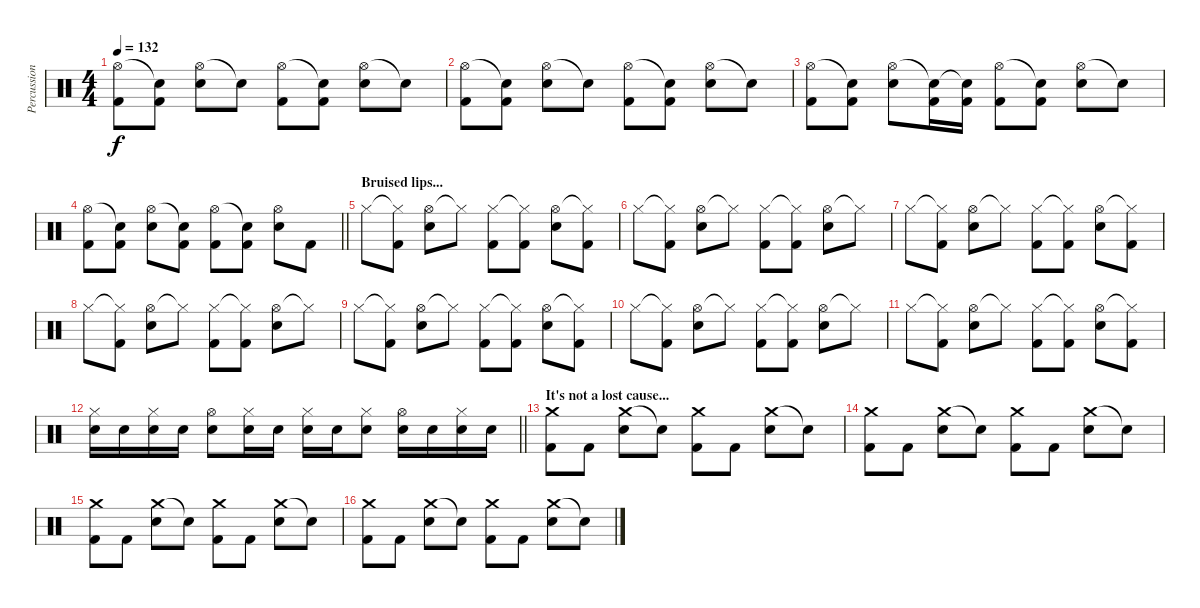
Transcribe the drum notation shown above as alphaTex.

\track ("Percussioni" "Percussion") {instrument percussion}
\staff {score}
\articulation defaults
\ts (4 4)
\tempo 132
\clef neutral
\ks c
("Hi-Hat (open)" "Kick (hit) 2").8{dy f} ("Snare (hit)"{t} "Kick (hit) 2").8 ("Hi-Hat (open)" "Snare (hit) 2").8 "Snare (hit)"{t}.8 ("Hi-Hat (open)" "Kick (hit) 2").8 ("Snare (hit)"{t} "Kick (hit) 2").8 ("Hi-Hat (open)" "Snare (hit) 2").8 "Snare (hit)"{t}.8 |
("Hi-Hat (open)" "Kick (hit) 2").8 ("Snare (hit)"{t} "Kick (hit) 2").8 ("Hi-Hat (open)" "Snare (hit) 2").8 "Snare (hit)"{t}.8 ("Hi-Hat (open)" "Kick (hit) 2").8 ("Snare (hit)"{t} "Kick (hit) 2").8 ("Hi-Hat (open)" "Snare (hit) 2").8 "Snare (hit)"{t}.8 |
("Hi-Hat (open)" "Kick (hit) 2").8{volume 16} ("Snare (hit)"{t} "Kick (hit) 2").8 ("Hi-Hat (open)" "Snare (hit) 2").8 ("Snare (hit)"{t} "Kick (hit) 2").16 ("Snare (hit)"{t} "Kick (hit) 2").16 ("Hi-Hat (open)" "Kick (hit) 2").8 ("Snare (hit)"{t} "Kick (hit) 2").8 ("Hi-Hat (open)" "Snare (hit) 2").8 "Snare (hit)"{t}.8 |
\barLineRight lightlight
("Hi-Hat (open)" "Kick (hit) 2").8 ("Snare (hit)"{t} "Kick (hit) 2").8 ("Hi-Hat (open)" "Snare (hit) 2").8 ("Snare (hit)"{t} "Kick (hit) 2").8 ("Hi-Hat (open)" "Kick (hit) 2").8 ("Snare (hit)"{t} "Kick (hit) 2").8 ("Hi-Hat (open)" "Snare (hit) 2").8 "Kick (hit) 2".8 |
\section ("" "Bruised lips...")
"Hi-Hat (closed)".8 ("Hi-Hat (closed)"{t} "Kick (hit) 2").8 ("Hi-Hat (open)" "Snare (hit) 2").8 "Hi-Hat (closed)"{t}.8 ("Hi-Hat (closed)" "Kick (hit) 2").8 ("Hi-Hat (closed)"{t} "Kick (hit) 2").8 ("Hi-Hat (open)" "Snare (hit) 2").8 ("Hi-Hat (closed)"{t} "Kick (hit) 2").8 |
"Hi-Hat (closed)".8 ("Hi-Hat (closed)"{t} "Kick (hit) 2").8 ("Hi-Hat (open)" "Snare (hit) 2").8 "Hi-Hat (closed)"{t}.8 ("Hi-Hat (closed)" "Kick (hit) 2").8 ("Hi-Hat (closed)"{t} "Kick (hit) 2").8 ("Hi-Hat (open)" "Snare (hit) 2").8 "Hi-Hat (closed)"{t}.8 |
"Hi-Hat (closed)".8 ("Hi-Hat (closed)"{t} "Kick (hit) 2").8 ("Hi-Hat (open)" "Snare (hit) 2").8 "Hi-Hat (closed)"{t}.8 ("Hi-Hat (closed)" "Kick (hit) 2").8 ("Hi-Hat (closed)"{t} "Kick (hit) 2").8 ("Hi-Hat (open)" "Snare (hit) 2").8 ("Hi-Hat (closed)"{t} "Kick (hit) 2").8 |
"Hi-Hat (closed)".8 ("Hi-Hat (closed)"{t} "Kick (hit) 2").8 ("Hi-Hat (open)" "Snare (hit) 2").8 "Hi-Hat (closed)"{t}.8 ("Hi-Hat (closed)" "Kick (hit) 2").8 ("Hi-Hat (closed)"{t} "Kick (hit) 2").8 ("Hi-Hat (open)" "Snare (hit) 2").8 "Hi-Hat (closed)"{t}.8 |
"Hi-Hat (closed)".8 ("Hi-Hat (closed)"{t} "Kick (hit) 2").8 ("Hi-Hat (open)" "Snare (hit) 2").8 "Hi-Hat (closed)"{t}.8 ("Hi-Hat (closed)" "Kick (hit) 2").8 ("Hi-Hat (closed)"{t} "Kick (hit) 2").8 ("Hi-Hat (open)" "Snare (hit) 2").8 ("Hi-Hat (closed)"{t} "Kick (hit) 2").8 |
"Hi-Hat (closed)".8 ("Hi-Hat (closed)"{t} "Kick (hit) 2").8 ("Hi-Hat (open)" "Snare (hit) 2").8 "Hi-Hat (closed)"{t}.8 ("Hi-Hat (closed)" "Kick (hit) 2").8 ("Hi-Hat (closed)"{t} "Kick (hit) 2").8 ("Hi-Hat (open)" "Snare (hit) 2").8 "Hi-Hat (closed)"{t}.8 |
"Hi-Hat (closed)".8 ("Hi-Hat (closed)"{t} "Kick (hit) 2").8 ("Hi-Hat (open)" "Snare (hit) 2").8 "Hi-Hat (closed)"{t}.8 ("Hi-Hat (closed)" "Kick (hit) 2").8 ("Hi-Hat (closed)"{t} "Kick (hit) 2").8 ("Hi-Hat (open)" "Snare (hit) 2").8 ("Hi-Hat (closed)"{t} "Kick (hit) 2").8 |
\barLineRight lightlight
("Hi-Hat (closed)" "Snare (hit) 2").16 "Snare (hit) 2".16 ("Hi-Hat (closed)" "Snare (hit) 2").16 "Snare (hit) 2".16 ("Hi-Hat (open)" "Snare (hit) 2").8 ("Hi-Hat (closed)" "Snare (hit) 2").16 "Snare (hit) 2".16 ("Hi-Hat (closed)" "Snare (hit) 2").16 "Snare (hit) 2".16 ("Hi-Hat (closed)" "Snare (hit) 2").8 ("Hi-Hat (open)" "Snare (hit) 2").16 "Snare (hit) 2".16 ("Hi-Hat (closed)" "Snare (hit) 2").16 "Snare (hit) 2".16 |
\section ("" "It's not a lost cause...")
("Crash medium (hit)" "Kick (hit) 2").8 "Kick (hit) 2".8 ("Crash medium (hit)" "Snare (hit) 2").8 "Snare (hit)"{t}.8 ("Crash medium (hit)" "Kick (hit) 2").8 "Kick (hit) 2".8 ("Crash medium (hit)" "Snare (hit) 2").8 "Snare (hit)"{t}.8 |
("Crash medium (hit)" "Kick (hit) 2").8 "Kick (hit) 2".8 ("Crash medium (hit)" "Snare (hit) 2").8 "Snare (hit)"{t}.8 ("Crash medium (hit)" "Kick (hit) 2").8 "Kick (hit) 2".8 ("Crash medium (hit)" "Snare (hit) 2").8 "Snare (hit)"{t}.8 |
("Crash medium (hit)" "Kick (hit) 2").8 "Kick (hit) 2".8 ("Crash medium (hit)" "Snare (hit) 2").8 "Snare (hit)"{t}.8 ("Crash medium (hit)" "Kick (hit) 2").8 "Kick (hit) 2".8 ("Crash medium (hit)" "Snare (hit) 2").8 "Snare (hit)"{t}.8 |
("Crash medium (hit)" "Kick (hit) 2").8 "Kick (hit) 2".8 ("Crash medium (hit)" "Snare (hit) 2").8 "Snare (hit)"{t}.8 ("Crash medium (hit)" "Kick (hit) 2").8 "Kick (hit) 2".8 ("Crash medium (hit)" "Snare (hit) 2").8 "Snare (hit)"{t}.8
